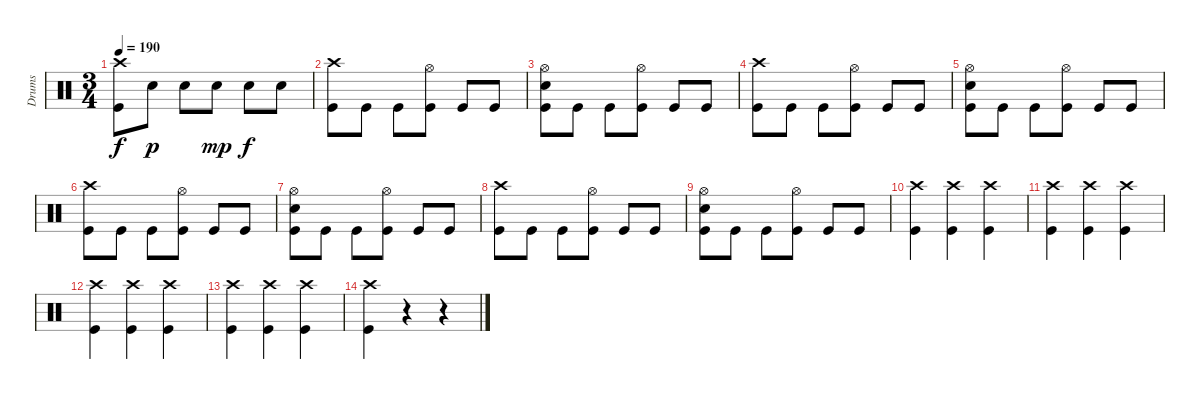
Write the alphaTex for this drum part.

\track ("Drums" "Drums") {instrument percussion}
\staff {score}
\articulation defaults
\ts (3 4)
\tempo 190
\clef neutral
\ks c
("Crash high (hit)" "Kick (hit)").8{dy f} "Snare (hit) 2".8{dy p} "Snare (hit) 2".8 "Snare (hit) 2".8{dy mp} "Snare (hit) 2".8{dy f} "Snare (hit) 2".8 |
("Crash high (hit)" "Kick (hit)").8 "Kick (hit)".8 "Kick (hit)".8 ("Hi-Hat (open)" "Kick (hit)").8 "Kick (hit)".8 "Kick (hit)".8 |
("Kick (hit)" "Hi-Hat (open)" "Snare (hit) 2").8 "Kick (hit)".8 "Kick (hit)".8 ("Kick (hit)" "Hi-Hat (open)").8 "Kick (hit)".8 "Kick (hit)".8 |
("Crash high (hit)" "Kick (hit)").8 "Kick (hit)".8 "Kick (hit)".8 ("Hi-Hat (open)" "Kick (hit)").8 "Kick (hit)".8 "Kick (hit)".8 |
("Kick (hit)" "Hi-Hat (open)" "Snare (hit) 2").8 "Kick (hit)".8 "Kick (hit)".8 ("Kick (hit)" "Hi-Hat (open)").8 "Kick (hit)".8 "Kick (hit)".8 |
("Crash high (hit)" "Kick (hit)").8 "Kick (hit)".8 "Kick (hit)".8 ("Hi-Hat (open)" "Kick (hit)").8 "Kick (hit)".8 "Kick (hit)".8 |
("Kick (hit)" "Hi-Hat (open)" "Snare (hit) 2").8 "Kick (hit)".8 "Kick (hit)".8 ("Kick (hit)" "Hi-Hat (open)").8 "Kick (hit)".8 "Kick (hit)".8 |
("Crash high (hit)" "Kick (hit)").8 "Kick (hit)".8 "Kick (hit)".8 ("Hi-Hat (open)" "Kick (hit)").8 "Kick (hit)".8 "Kick (hit)".8 |
("Kick (hit)" "Hi-Hat (open)" "Snare (hit) 2").8 "Kick (hit)".8 "Kick (hit)".8 ("Kick (hit)" "Hi-Hat (open)").8 "Kick (hit)".8 "Kick (hit)".8 |
("Crash high (hit)" "Kick (hit)").4 ("Crash high (hit)" "Kick (hit)").4 ("Crash high (hit)" "Kick (hit)").4 |
("Crash high (hit)" "Kick (hit)").4 ("Crash high (hit)" "Kick (hit)").4 ("Crash high (hit)" "Kick (hit)").4 |
("Crash high (hit)" "Kick (hit)").4 ("Crash high (hit)" "Kick (hit)").4 ("Crash high (hit)" "Kick (hit)").4 |
("Crash high (hit)" "Kick (hit)").4 ("Crash high (hit)" "Kick (hit)").4 ("Crash high (hit)" "Kick (hit)").4 |
("Crash high (hit)" "Kick (hit)").4 r.4 r.4
